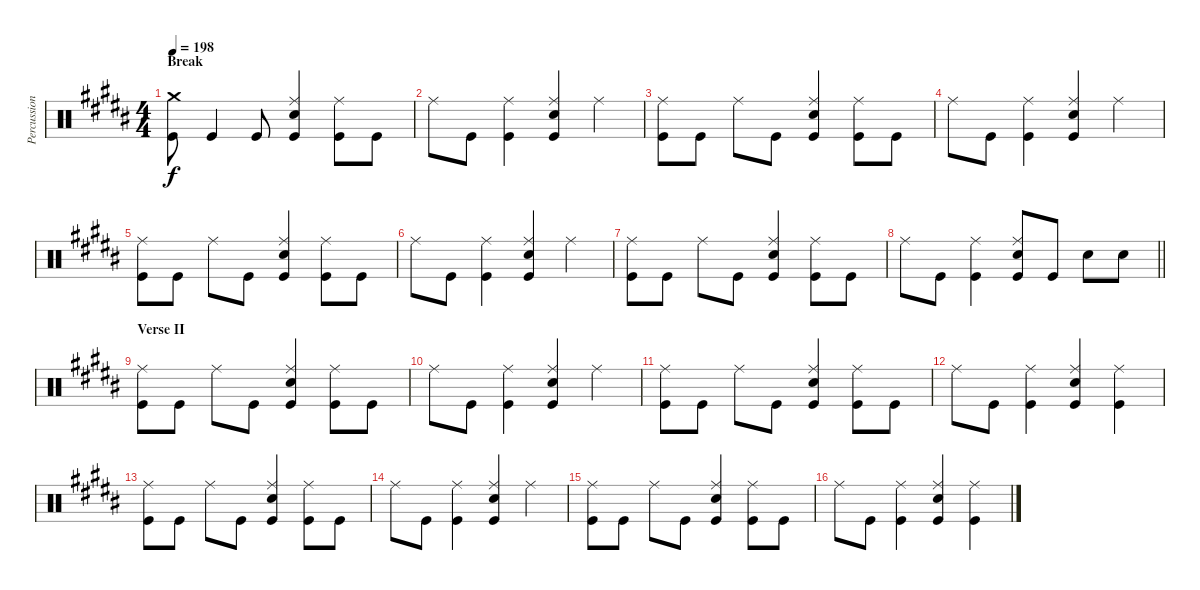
\track ("Percussion" "Percussion") {instrument percussion}
\staff {score}
\articulation defaults
\ts (4 4)
\section ("" "Break")
\tempo 198
\clef neutral
\ks b
("Crash medium (hit)" "Kick (hit)").8{dy f} "Kick (hit)".4 "Kick (hit)".8 ("Ride (middle)" "Electric Snare (hit)" "Kick (hit)").4 ("Ride (middle)" "Kick (hit)").8 "Kick (hit)".8 |
"Ride (middle)".8 "Kick (hit)".8 ("Ride (middle)" "Kick (hit)").4 ("Ride (middle)" "Electric Snare (hit)" "Kick (hit)").4 "Ride (middle)".4 |
("Ride (middle)" "Kick (hit)").8 "Kick (hit)".8 "Ride (middle)".8 "Kick (hit)".8 ("Ride (middle)" "Electric Snare (hit)" "Kick (hit)").4 ("Ride (middle)" "Kick (hit)").8 "Kick (hit)".8 |
"Ride (middle)".8 "Kick (hit)".8 ("Ride (middle)" "Kick (hit)").4 ("Ride (middle)" "Electric Snare (hit)" "Kick (hit)").4 "Ride (middle)".4 |
("Ride (middle)" "Kick (hit)").8 "Kick (hit)".8 "Ride (middle)".8 "Kick (hit)".8 ("Ride (middle)" "Electric Snare (hit)" "Kick (hit)").4 ("Ride (middle)" "Kick (hit)").8 "Kick (hit)".8 |
"Ride (middle)".8 "Kick (hit)".8 ("Ride (middle)" "Kick (hit)").4 ("Ride (middle)" "Electric Snare (hit)" "Kick (hit)").4 "Ride (middle)".4 |
("Ride (middle)" "Kick (hit)").8 "Kick (hit)".8 "Ride (middle)".8 "Kick (hit)".8 ("Ride (middle)" "Electric Snare (hit)" "Kick (hit)").4 ("Ride (middle)" "Kick (hit)").8 "Kick (hit)".8 |
\barLineRight lightlight "Ride (middle)".8 "Kick (hit)".8
("Ride (middle)" "Kick (hit)").4 ("Ride (middle)" "Electric Snare (hit)" "Kick (hit)").8 "Kick (hit)".8 "Electric Snare (hit)".8 "Electric Snare (hit)".8 |
\section ("" "Verse II")
("Ride (middle)" "Kick (hit)").8 "Kick (hit)".8 "Ride (middle)".8 "Kick (hit)".8 ("Ride (middle)" "Electric Snare (hit)" "Kick (hit)").4 ("Ride (middle)" "Kick (hit)").8 "Kick (hit)".8 |
"Ride (middle)".8 "Kick (hit)".8 ("Ride (middle)" "Kick (hit)").4 ("Ride (middle)" "Electric Snare (hit)" "Kick (hit)").4 "Ride (middle)".4 |
("Ride (middle)" "Kick (hit)").8 "Kick (hit)".8 "Ride (middle)".8 "Kick (hit)".8 ("Ride (middle)" "Electric Snare (hit)" "Kick (hit)").4 ("Ride (middle)" "Kick (hit)").8 "Kick (hit)".8 |
"Ride (middle)".8 "Kick (hit)".8 ("Ride (middle)" "Kick (hit)").4 ("Ride (middle)" "Electric Snare (hit)" "Kick (hit)").4 ("Ride (middle)" "Kick (hit)").4 |
("Ride (middle)" "Kick (hit)").8 "Kick (hit)".8 "Ride (middle)".8 "Kick (hit)".8 ("Ride (middle)" "Electric Snare (hit)" "Kick (hit)").4 ("Ride (middle)" "Kick (hit)").8 "Kick (hit)".8 |
"Ride (middle)".8 "Kick (hit)".8 ("Ride (middle)" "Kick (hit)").4 ("Ride (middle)" "Electric Snare (hit)" "Kick (hit)").4 "Ride (middle)".4 |
("Ride (middle)" "Kick (hit)").8 "Kick (hit)".8 "Ride (middle)".8 "Kick (hit)".8 ("Ride (middle)" "Electric Snare (hit)" "Kick (hit)").4 ("Ride (middle)" "Kick (hit)").8 "Kick (hit)".8 |
"Ride (middle)".8 "Kick (hit)".8 ("Ride (middle)" "Kick (hit)").4 ("Ride (middle)" "Electric Snare (hit)" "Kick (hit)").4 ("Ride (middle)" "Kick (hit)").4
